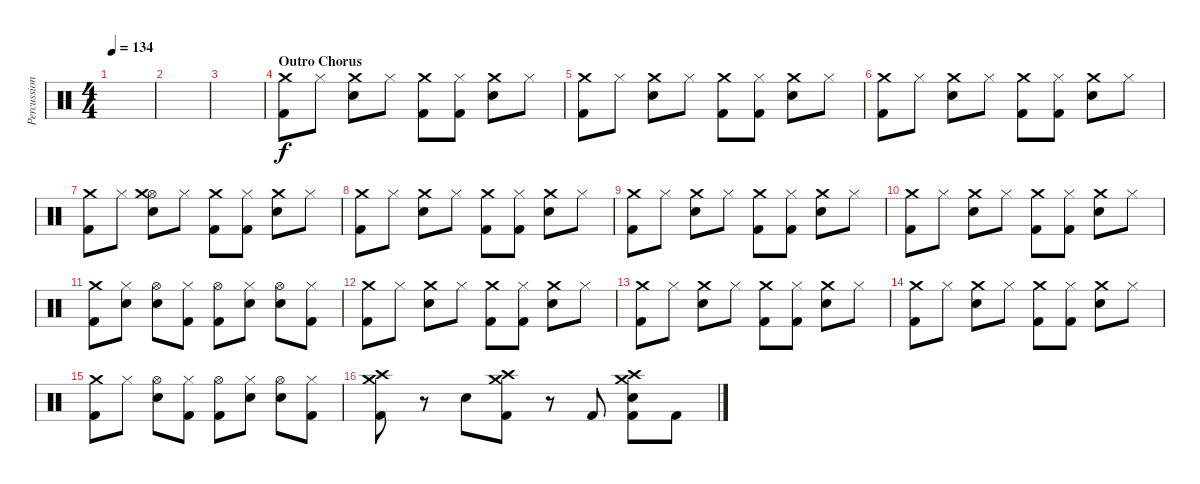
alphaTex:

\track ("Percussion" "Percussion") {instrument percussion}
\staff {score}
\articulation defaults
\ts (4 4)
\tempo 134
\clef neutral
\ks c
|
|
|
\section ("" "Outro Chorus")
("Crash medium (hit)" "Kick (hit) 2").8 "Hi-Hat (closed)".8 ("Crash medium (hit)" "Snare (hit) 2").8 "Hi-Hat (closed)".8 ("Crash medium (hit)" "Kick (hit) 2").8 ("Hi-Hat (closed)" "Kick (hit) 2").8 ("Crash medium (hit)" "Snare (hit) 2").8 "Hi-Hat (closed)".8 |
("Crash medium (hit)" "Kick (hit) 2").8 "Hi-Hat (closed)".8 ("Crash medium (hit)" "Snare (hit) 2").8 "Hi-Hat (closed)".8 ("Crash medium (hit)" "Kick (hit) 2").8 ("Hi-Hat (closed)" "Kick (hit) 2").8 ("Crash medium (hit)" "Snare (hit) 2").8 "Hi-Hat (closed)".8 |
("Crash medium (hit)" "Kick (hit) 2").8 "Hi-Hat (closed)".8 ("Crash medium (hit)" "Snare (hit) 2").8 "Hi-Hat (closed)".8 ("Crash medium (hit)" "Kick (hit) 2").8 ("Hi-Hat (closed)" "Kick (hit) 2").8 ("Crash medium (hit)" "Snare (hit) 2").8 "Hi-Hat (closed)".8 |
("Crash medium (hit)" "Kick (hit) 2").8 "Hi-Hat (closed)".8 ("Hi-Hat (open)" "Crash medium (hit)" "Snare (hit) 2").8 "Hi-Hat (closed)".8 ("Crash medium (hit)" "Kick (hit) 2").8 ("Hi-Hat (closed)" "Kick (hit) 2").8 ("Crash medium (hit)" "Snare (hit) 2").8 "Hi-Hat (closed)".8 |
("Crash medium (hit)" "Kick (hit) 2").8 "Hi-Hat (closed)".8 ("Crash medium (hit)" "Snare (hit) 2").8 "Hi-Hat (closed)".8 ("Crash medium (hit)" "Kick (hit) 2").8 ("Hi-Hat (closed)" "Kick (hit) 2").8 ("Crash medium (hit)" "Snare (hit) 2").8 "Hi-Hat (closed)".8 |
("Crash medium (hit)" "Kick (hit) 2").8 "Hi-Hat (closed)".8 ("Crash medium (hit)" "Snare (hit) 2").8 "Hi-Hat (closed)".8 ("Crash medium (hit)" "Kick (hit) 2").8 ("Hi-Hat (closed)" "Kick (hit) 2").8 ("Crash medium (hit)" "Snare (hit) 2").8 "Hi-Hat (closed)".8 |
("Crash medium (hit)" "Kick (hit) 2").8 "Hi-Hat (closed)".8 ("Crash medium (hit)" "Snare (hit) 2").8 "Hi-Hat (closed)".8 ("Crash medium (hit)" "Kick (hit) 2").8 ("Hi-Hat (closed)" "Kick (hit) 2").8 ("Crash medium (hit)" "Snare (hit) 2").8 "Hi-Hat (closed)".8 |
("Crash medium (hit)" "Kick (hit) 2").8 ("Hi-Hat (closed)" "Snare (hit) 2").8 ("Hi-Hat (open)" "Snare (hit) 2").8 ("Hi-Hat (closed)" "Kick (hit) 2").8 ("Hi-Hat (open)" "Kick (hit) 2").8 ("Hi-Hat (closed)" "Snare (hit) 2").8 ("Hi-Hat (open)" "Snare (hit) 2").8 ("Hi-Hat (closed)" "Kick (hit) 2").8 |
("Crash medium (hit)" "Kick (hit) 2").8 "Hi-Hat (closed)".8 ("Crash medium (hit)" "Snare (hit) 2").8 "Hi-Hat (closed)".8 ("Crash medium (hit)" "Kick (hit) 2").8 ("Hi-Hat (closed)" "Kick (hit) 2").8 ("Crash medium (hit)" "Snare (hit) 2").8 "Hi-Hat (closed)".8 |
("Crash medium (hit)" "Kick (hit) 2").8 "Hi-Hat (closed)".8 ("Crash medium (hit)" "Snare (hit) 2").8 "Hi-Hat (closed)".8 ("Crash medium (hit)" "Kick (hit) 2").8 ("Hi-Hat (closed)" "Kick (hit) 2").8 ("Crash medium (hit)" "Snare (hit) 2").8 "Hi-Hat (closed)".8 |
("Crash medium (hit)" "Kick (hit) 2").8 "Hi-Hat (closed)".8 ("Crash medium (hit)" "Snare (hit) 2").8 "Hi-Hat (closed)".8 ("Crash medium (hit)" "Kick (hit) 2").8 ("Hi-Hat (closed)" "Kick (hit) 2").8 ("Crash medium (hit)" "Snare (hit) 2").8 "Hi-Hat (closed)".8 |
("Crash medium (hit)" "Kick (hit) 2").8 "Hi-Hat (closed)".8 ("Hi-Hat (open)" "Snare (hit) 2").8 ("Hi-Hat (closed)" "Kick (hit) 2").8 ("Hi-Hat (open)" "Kick (hit) 2").8 ("Hi-Hat (closed)" "Snare (hit) 2").8 ("Hi-Hat (open)" "Snare (hit) 2").8 ("Hi-Hat (closed)" "Kick (hit) 2").8 |
("Crash high (hit)" "Crash medium (hit)" "Kick (hit) 2").8 r.8 "Snare (hit) 2".8 ("Crash high (hit)" "Crash medium (hit)" "Kick (hit) 2").8 r.8 "Kick (hit) 2".8 ("Crash high (hit)" "Crash medium (hit)" "Snare (hit) 2" "Kick (hit) 2").8 "Kick (hit) 2".8
